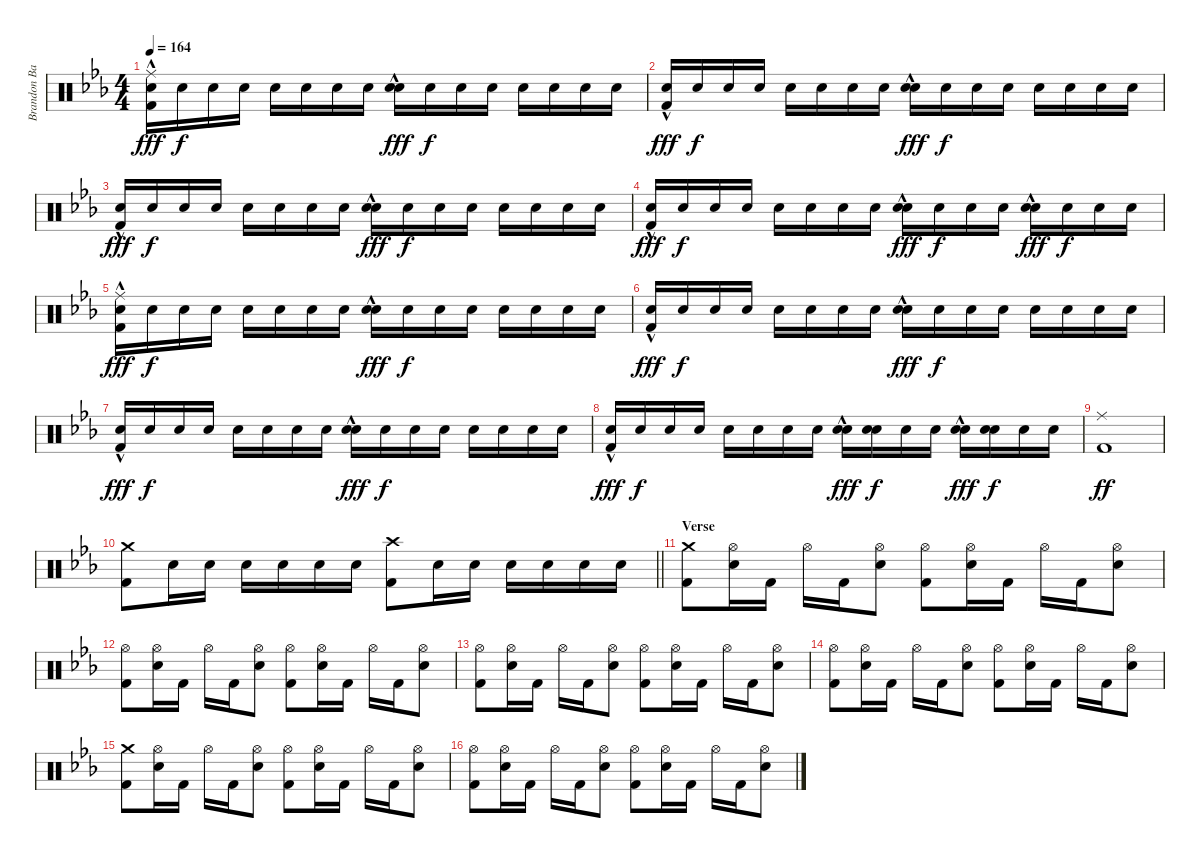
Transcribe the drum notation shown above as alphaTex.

\track ("Brandon Barnes - Drums" "Brandon Ba") {instrument percussion}
\staff {score}
\articulation defaults
\ts (4 4)
\tempo 164
\clef neutral
\ks eb
("Ride (middle)"{hac} "Kick (hit) 2"{hac} "Electric Snare (hit)").16{dy fff} "Electric Snare (hit)".16{dy f} "Electric Snare (hit)".16 "Electric Snare (hit)".16 "Electric Snare (hit)".16 "Electric Snare (hit)".16 "Electric Snare (hit)".16 "Electric Snare (hit)".16 ("Snare (hit) 2"{hac} "Electric Snare (hit)").16{dy fff} "Electric Snare (hit)".16{dy f} "Electric Snare (hit)".16 "Electric Snare (hit)".16 "Electric Snare (hit)".16 "Electric Snare (hit)".16 "Electric Snare (hit)".16 "Electric Snare (hit)".16 |
("Kick (hit) 2"{hac} "Electric Snare (hit)").16{dy fff} "Electric Snare (hit)".16{dy f} "Electric Snare (hit)".16 "Electric Snare (hit)".16 "Electric Snare (hit)".16 "Electric Snare (hit)".16 "Electric Snare (hit)".16 "Electric Snare (hit)".16 ("Snare (hit) 2"{hac} "Electric Snare (hit)").16{dy fff} "Electric Snare (hit)".16{dy f} "Electric Snare (hit)".16 "Electric Snare (hit)".16 "Electric Snare (hit)".16 "Electric Snare (hit)".16 "Electric Snare (hit)".16 "Electric Snare (hit)".16 |
("Kick (hit) 2"{hac} "Electric Snare (hit)").16{dy fff} "Electric Snare (hit)".16{dy f} "Electric Snare (hit)".16 "Electric Snare (hit)".16 "Electric Snare (hit)".16 "Electric Snare (hit)".16 "Electric Snare (hit)".16 "Electric Snare (hit)".16 ("Snare (hit) 2"{hac} "Electric Snare (hit)").16{dy fff} "Electric Snare (hit)".16{dy f} "Electric Snare (hit)".16 "Electric Snare (hit)".16 "Electric Snare (hit)".16 "Electric Snare (hit)".16 "Electric Snare (hit)".16 "Electric Snare (hit)".16 |
("Kick (hit) 2"{hac} "Electric Snare (hit)").16{dy fff} "Electric Snare (hit)".16{dy f} "Electric Snare (hit)".16 "Electric Snare (hit)".16 "Electric Snare (hit)".16 "Electric Snare (hit)".16 "Electric Snare (hit)".16 "Electric Snare (hit)".16 ("Snare (hit) 2"{hac} "Electric Snare (hit)").16{dy fff} "Electric Snare (hit)".16{dy f} "Electric Snare (hit)".16 "Electric Snare (hit)".16 ("Electric Snare (hit)"{hac} "Snare (hit) 2").16{dy fff} "Electric Snare (hit)".16{dy f} "Electric Snare (hit)".16 "Electric Snare (hit)".16 |
("Ride (middle)"{hac} "Kick (hit) 2"{hac} "Electric Snare (hit)").16{dy fff} "Electric Snare (hit)".16{dy f} "Electric Snare (hit)".16 "Electric Snare (hit)".16 "Electric Snare (hit)".16 "Electric Snare (hit)".16 "Electric Snare (hit)".16 "Electric Snare (hit)".16 ("Snare (hit) 2"{hac} "Electric Snare (hit)").16{dy fff} "Electric Snare (hit)".16{dy f} "Electric Snare (hit)".16 "Electric Snare (hit)".16 "Electric Snare (hit)".16 "Electric Snare (hit)".16 "Electric Snare (hit)".16 "Electric Snare (hit)".16 |
("Kick (hit) 2"{hac} "Electric Snare (hit)").16{dy fff} "Electric Snare (hit)".16{dy f} "Electric Snare (hit)".16 "Electric Snare (hit)".16 "Electric Snare (hit)".16 "Electric Snare (hit)".16 "Electric Snare (hit)".16 "Electric Snare (hit)".16 ("Snare (hit) 2"{hac} "Electric Snare (hit)").16{dy fff} "Electric Snare (hit)".16{dy f} "Electric Snare (hit)".16 "Electric Snare (hit)".16 "Electric Snare (hit)".16 "Electric Snare (hit)".16 "Electric Snare (hit)".16 "Electric Snare (hit)".16 |
("Kick (hit) 2"{hac} "Electric Snare (hit)").16{dy fff} "Electric Snare (hit)".16{dy f} "Electric Snare (hit)".16 "Electric Snare (hit)".16 "Electric Snare (hit)".16 "Electric Snare (hit)".16 "Electric Snare (hit)".16 "Electric Snare (hit)".16 ("Snare (hit) 2"{hac} "Electric Snare (hit)").16{dy fff} "Electric Snare (hit)".16{dy f} "Electric Snare (hit)".16 "Electric Snare (hit)".16 "Electric Snare (hit)".16 "Electric Snare (hit)".16 "Electric Snare (hit)".16 "Electric Snare (hit)".16 |
("Kick (hit) 2"{hac} "Electric Snare (hit)").16{dy fff} "Electric Snare (hit)".16{dy f} "Electric Snare (hit)".16 "Electric Snare (hit)".16 "Electric Snare (hit)".16 "Electric Snare (hit)".16 "Electric Snare (hit)".16 "Electric Snare (hit)".16 ("Snare (hit) 2"{hac} "Electric Snare (hit)").16{dy fff} ("Electric Snare (hit)" "Electric Snare (hit)").16{dy f} "Electric Snare (hit)".16 "Electric Snare (hit)".16 ("Electric Snare (hit)"{hac} "Snare (hit) 2").16{dy fff} ("Electric Snare (hit)" "Electric Snare (hit)").16{dy f} "Electric Snare (hit)".16 "Electric Snare (hit)".16 |
("Ride (middle)" "Kick (hit) 2").1{dy ff} |
\barLineRight lightlight
("Crash medium (hit)" "Kick (hit) 2").8 "Snare (hit) 2".16 "Snare (hit) 2".16 "Snare (hit) 2".16 "Snare (hit) 2".16 "Snare (hit) 2".16 "Snare (hit) 2".16 ("Crash high (hit)" "Kick (hit) 2").8 "Snare (hit) 2".16 "Snare (hit) 2".16 "Snare (hit) 2".16 "Snare (hit) 2".16 "Snare (hit) 2".16 "Snare (hit) 2".16 |
\section ("" "Verse")
("Kick (hit) 2" "Crash medium (hit)").8 ("Electric Snare (hit)" "Hi-Hat (open)").16 "Kick (hit) 2".16 "Hi-Hat (open)".16 "Kick (hit) 2".16 ("Electric Snare (hit)" "Hi-Hat (open)").8 ("Kick (hit) 2" "Hi-Hat (open)").8 ("Electric Snare (hit)" "Hi-Hat (open)").16 "Kick (hit) 2".16 "Hi-Hat (open)".16 "Kick (hit) 2".16 ("Electric Snare (hit)" "Hi-Hat (open)").8 |
("Kick (hit) 2" "Hi-Hat (open)").8 ("Electric Snare (hit)" "Hi-Hat (open)").16 "Kick (hit) 2".16 "Hi-Hat (open)".16 "Kick (hit) 2".16 ("Electric Snare (hit)" "Hi-Hat (open)").8 ("Kick (hit) 2" "Hi-Hat (open)").8 ("Electric Snare (hit)" "Hi-Hat (open)").16 "Kick (hit) 2".16 "Hi-Hat (open)".16 "Kick (hit) 2".16 ("Electric Snare (hit)" "Hi-Hat (open)").8 |
("Kick (hit) 2" "Hi-Hat (open)").8 ("Electric Snare (hit)" "Hi-Hat (open)").16 "Kick (hit) 2".16 "Hi-Hat (open)".16 "Kick (hit) 2".16 ("Electric Snare (hit)" "Hi-Hat (open)").8 ("Kick (hit) 2" "Hi-Hat (open)").8 ("Electric Snare (hit)" "Hi-Hat (open)").16 "Kick (hit) 2".16 "Hi-Hat (open)".16 "Kick (hit) 2".16 ("Electric Snare (hit)" "Hi-Hat (open)").8 |
("Kick (hit) 2" "Hi-Hat (open)").8 ("Electric Snare (hit)" "Hi-Hat (open)").16 "Kick (hit) 2".16 "Hi-Hat (open)".16 "Kick (hit) 2".16 ("Electric Snare (hit)" "Hi-Hat (open)").8 ("Kick (hit) 2" "Hi-Hat (open)").8 ("Electric Snare (hit)" "Hi-Hat (open)").16 "Kick (hit) 2".16 "Hi-Hat (open)".16 "Kick (hit) 2".16 ("Electric Snare (hit)" "Hi-Hat (open)").8 |
("Kick (hit) 2" "Crash medium (hit)").8 ("Electric Snare (hit)" "Hi-Hat (open)").16 "Kick (hit) 2".16 "Hi-Hat (open)".16 "Kick (hit) 2".16 ("Electric Snare (hit)" "Hi-Hat (open)").8 ("Kick (hit) 2" "Hi-Hat (open)").8 ("Electric Snare (hit)" "Hi-Hat (open)").16 "Kick (hit) 2".16 "Hi-Hat (open)".16 "Kick (hit) 2".16 ("Electric Snare (hit)" "Hi-Hat (open)").8 |
("Kick (hit) 2" "Hi-Hat (open)").8 ("Electric Snare (hit)" "Hi-Hat (open)").16 "Kick (hit) 2".16 "Hi-Hat (open)".16 "Kick (hit) 2".16 ("Electric Snare (hit)" "Hi-Hat (open)").8 ("Kick (hit) 2" "Hi-Hat (open)").8 ("Electric Snare (hit)" "Hi-Hat (open)").16 "Kick (hit) 2".16 "Hi-Hat (open)".16 "Kick (hit) 2".16 ("Electric Snare (hit)" "Hi-Hat (open)").8
